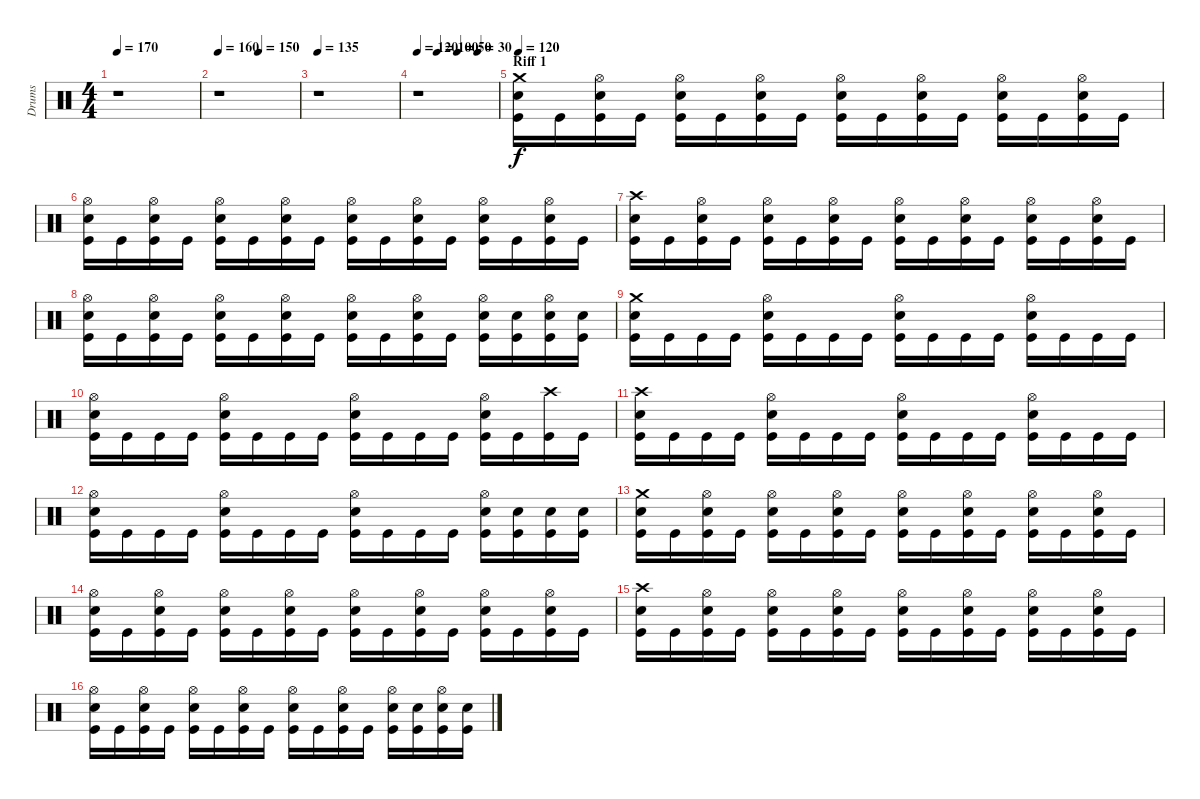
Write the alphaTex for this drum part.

\track ("Drums" "Drums") {instrument percussion}
\staff {score}
\articulation defaults
\ts (4 4)
\tempo 170
\clef neutral
\ks c
r.1{dy f} |
\tempo 160
\tempo (150 0.5)
r.1 |
\tempo 135
r.1 |
\tempo 120
\tempo (100 0.25)
\tempo (50 0.5)
\tempo (30 0.75)
r.1 |
\section ("" "Riff 1")
\tempo 120
("Crash medium (hit)" "Snare (hit) 2" "Kick (hit)").16 "Kick (hit)".16 ("Hi-Hat (open)" "Snare (hit) 2" "Kick (hit)").16 "Kick (hit)".16 ("Hi-Hat (open)" "Snare (hit) 2" "Kick (hit)").16 "Kick (hit)".16 ("Hi-Hat (open)" "Snare (hit) 2" "Kick (hit)").16 "Kick (hit)".16 ("Hi-Hat (open)" "Snare (hit) 2" "Kick (hit)").16 "Kick (hit)".16 ("Hi-Hat (open)" "Snare (hit) 2" "Kick (hit)").16 "Kick (hit)".16 ("Hi-Hat (open)" "Snare (hit) 2" "Kick (hit)").16 "Kick (hit)".16 ("Hi-Hat (open)" "Snare (hit) 2" "Kick (hit)").16 "Kick (hit)".16 |
("Hi-Hat (open)" "Snare (hit) 2" "Kick (hit)").16 "Kick (hit)".16 ("Hi-Hat (open)" "Snare (hit) 2" "Kick (hit)").16 "Kick (hit)".16 ("Hi-Hat (open)" "Snare (hit) 2" "Kick (hit)").16 "Kick (hit)".16 ("Hi-Hat (open)" "Snare (hit) 2" "Kick (hit)").16 "Kick (hit)".16 ("Hi-Hat (open)" "Snare (hit) 2" "Kick (hit)").16 "Kick (hit)".16 ("Hi-Hat (open)" "Snare (hit) 2" "Kick (hit)").16 "Kick (hit)".16 ("Hi-Hat (open)" "Snare (hit) 2" "Kick (hit)").16 "Kick (hit)".16 ("Hi-Hat (open)" "Snare (hit) 2" "Kick (hit)").16 "Kick (hit)".16 |
("Crash high (hit)" "Snare (hit) 2" "Kick (hit)").16 "Kick (hit)".16 ("Hi-Hat (open)" "Snare (hit) 2" "Kick (hit)").16 "Kick (hit)".16 ("Hi-Hat (open)" "Snare (hit) 2" "Kick (hit)").16 "Kick (hit)".16 ("Hi-Hat (open)" "Snare (hit) 2" "Kick (hit)").16 "Kick (hit)".16 ("Hi-Hat (open)" "Snare (hit) 2" "Kick (hit)").16 "Kick (hit)".16 ("Hi-Hat (open)" "Snare (hit) 2" "Kick (hit)").16 "Kick (hit)".16 ("Hi-Hat (open)" "Snare (hit) 2" "Kick (hit)").16 "Kick (hit)".16 ("Hi-Hat (open)" "Snare (hit) 2" "Kick (hit)").16 "Kick (hit)".16 |
("Hi-Hat (open)" "Snare (hit) 2" "Kick (hit)").16 "Kick (hit)".16 ("Hi-Hat (open)" "Snare (hit) 2" "Kick (hit)").16 "Kick (hit)".16 ("Hi-Hat (open)" "Snare (hit) 2" "Kick (hit)").16 "Kick (hit)".16 ("Hi-Hat (open)" "Snare (hit) 2" "Kick (hit)").16 "Kick (hit)".16 ("Hi-Hat (open)" "Snare (hit) 2" "Kick (hit)").16 "Kick (hit)".16 ("Hi-Hat (open)" "Snare (hit) 2" "Kick (hit)").16 "Kick (hit)".16 ("Hi-Hat (open)" "Snare (hit) 2" "Kick (hit)").16 ("Electric Snare (hit)" "Kick (hit)").16 ("Hi-Hat (open)" "Snare (hit) 2" "Kick (hit)").16 ("Snare (hit) 2" "Kick (hit)").16 |
("Crash medium (hit)" "Snare (hit) 2" "Kick (hit)").16 "Kick (hit)".16 "Kick (hit)".16 "Kick (hit)".16 ("Hi-Hat (open)" "Snare (hit) 2" "Kick (hit)").16 "Kick (hit)".16 "Kick (hit)".16 "Kick (hit)".16 ("Hi-Hat (open)" "Snare (hit) 2" "Kick (hit)").16 "Kick (hit)".16 "Kick (hit)".16 "Kick (hit)".16 ("Hi-Hat (open)" "Snare (hit) 2" "Kick (hit)").16 "Kick (hit)".16 "Kick (hit)".16 "Kick (hit)".16 |
("Hi-Hat (open)" "Snare (hit) 2" "Kick (hit)").16 "Kick (hit)".16 "Kick (hit)".16 "Kick (hit)".16 ("Hi-Hat (open)" "Snare (hit) 2" "Kick (hit)").16 "Kick (hit)".16 "Kick (hit)".16 "Kick (hit)".16 ("Hi-Hat (open)" "Snare (hit) 2" "Kick (hit)").16 "Kick (hit)".16 "Kick (hit)".16 "Kick (hit)".16 ("Hi-Hat (open)" "Snare (hit) 2" "Kick (hit)").16 "Kick (hit)".16 ("Crash high (hit)" "Kick (hit)").16 "Kick (hit)".16 |
("Crash high (hit)" "Snare (hit) 2" "Kick (hit)").16 "Kick (hit)".16 "Kick (hit)".16 "Kick (hit)".16 ("Hi-Hat (open)" "Snare (hit) 2" "Kick (hit)").16 "Kick (hit)".16 "Kick (hit)".16 "Kick (hit)".16 ("Hi-Hat (open)" "Snare (hit) 2" "Kick (hit)").16 "Kick (hit)".16 "Kick (hit)".16 "Kick (hit)".16 ("Hi-Hat (open)" "Snare (hit) 2" "Kick (hit)").16 "Kick (hit)".16 "Kick (hit)".16 "Kick (hit)".16 |
("Hi-Hat (open)" "Snare (hit) 2" "Kick (hit)").16 "Kick (hit)".16 "Kick (hit)".16 "Kick (hit)".16 ("Hi-Hat (open)" "Snare (hit) 2" "Kick (hit)").16 "Kick (hit)".16 "Kick (hit)".16 "Kick (hit)".16 ("Hi-Hat (open)" "Snare (hit) 2" "Kick (hit)").16 "Kick (hit)".16 "Kick (hit)".16 "Kick (hit)".16 ("Hi-Hat (open)" "Snare (hit) 2" "Kick (hit)").16 ("Electric Snare (hit)" "Kick (hit)").16 ("Snare (hit) 2" "Kick (hit)").16 ("Snare (hit) 2" "Kick (hit)").16 |
("Crash medium (hit)" "Snare (hit) 2" "Kick (hit)").16 "Kick (hit)".16 ("Hi-Hat (open)" "Snare (hit) 2" "Kick (hit)").16 "Kick (hit)".16 ("Hi-Hat (open)" "Snare (hit) 2" "Kick (hit)").16 "Kick (hit)".16 ("Hi-Hat (open)" "Snare (hit) 2" "Kick (hit)").16 "Kick (hit)".16 ("Hi-Hat (open)" "Snare (hit) 2" "Kick (hit)").16 "Kick (hit)".16 ("Hi-Hat (open)" "Snare (hit) 2" "Kick (hit)").16 "Kick (hit)".16 ("Hi-Hat (open)" "Snare (hit) 2" "Kick (hit)").16 "Kick (hit)".16 ("Hi-Hat (open)" "Snare (hit) 2" "Kick (hit)").16 "Kick (hit)".16 |
("Hi-Hat (open)" "Snare (hit) 2" "Kick (hit)").16 "Kick (hit)".16 ("Hi-Hat (open)" "Snare (hit) 2" "Kick (hit)").16 "Kick (hit)".16 ("Hi-Hat (open)" "Snare (hit) 2" "Kick (hit)").16 "Kick (hit)".16 ("Hi-Hat (open)" "Snare (hit) 2" "Kick (hit)").16 "Kick (hit)".16 ("Hi-Hat (open)" "Snare (hit) 2" "Kick (hit)").16 "Kick (hit)".16 ("Hi-Hat (open)" "Snare (hit) 2" "Kick (hit)").16 "Kick (hit)".16 ("Hi-Hat (open)" "Snare (hit) 2" "Kick (hit)").16 "Kick (hit)".16 ("Hi-Hat (open)" "Snare (hit) 2" "Kick (hit)").16 "Kick (hit)".16 |
("Crash high (hit)" "Snare (hit) 2" "Kick (hit)").16 "Kick (hit)".16 ("Hi-Hat (open)" "Snare (hit) 2" "Kick (hit)").16 "Kick (hit)".16 ("Hi-Hat (open)" "Snare (hit) 2" "Kick (hit)").16 "Kick (hit)".16 ("Hi-Hat (open)" "Snare (hit) 2" "Kick (hit)").16 "Kick (hit)".16 ("Hi-Hat (open)" "Snare (hit) 2" "Kick (hit)").16 "Kick (hit)".16 ("Hi-Hat (open)" "Snare (hit) 2" "Kick (hit)").16 "Kick (hit)".16 ("Hi-Hat (open)" "Snare (hit) 2" "Kick (hit)").16 "Kick (hit)".16 ("Hi-Hat (open)" "Snare (hit) 2" "Kick (hit)").16 "Kick (hit)".16 |
("Hi-Hat (open)" "Snare (hit) 2" "Kick (hit)").16 "Kick (hit)".16 ("Hi-Hat (open)" "Snare (hit) 2" "Kick (hit)").16 "Kick (hit)".16 ("Hi-Hat (open)" "Snare (hit) 2" "Kick (hit)").16 "Kick (hit)".16 ("Hi-Hat (open)" "Snare (hit) 2" "Kick (hit)").16 "Kick (hit)".16 ("Hi-Hat (open)" "Snare (hit) 2" "Kick (hit)").16 "Kick (hit)".16 ("Hi-Hat (open)" "Snare (hit) 2" "Kick (hit)").16 "Kick (hit)".16 ("Hi-Hat (open)" "Snare (hit) 2" "Kick (hit)").16 ("Electric Snare (hit)" "Kick (hit)").16 ("Hi-Hat (open)" "Snare (hit) 2" "Kick (hit)").16 ("Snare (hit) 2" "Kick (hit)").16
